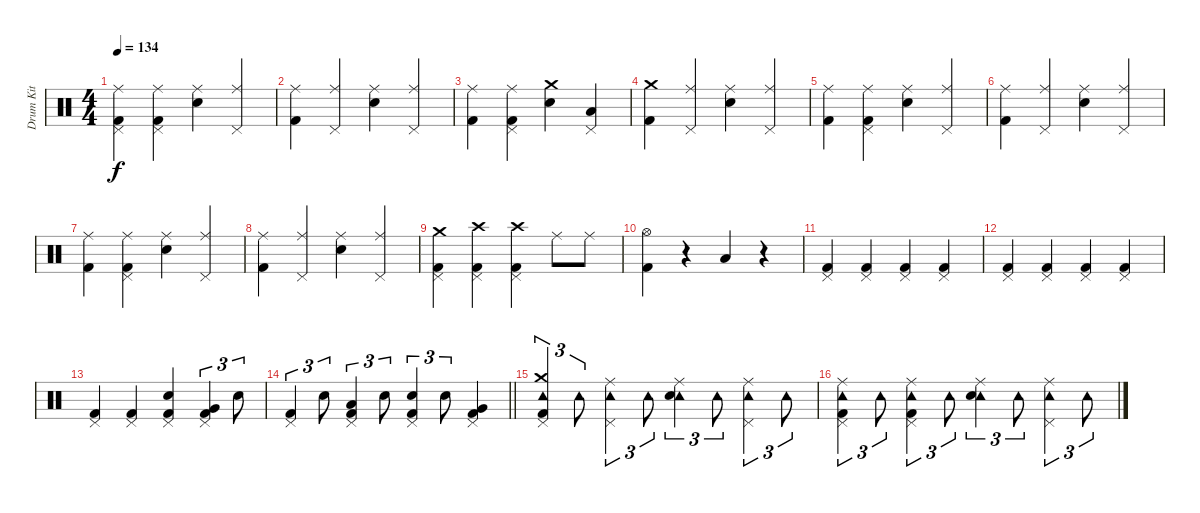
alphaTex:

\track ("Drum Kit" "Drum Kit") {instrument percussion}
\staff {score}
\articulation defaults
\ts (4 4)
\tempo 134
\clef neutral
\ks c
("Ride (middle)" "Pedal Hi-Hat (hit)" "Kick (hit) 2").4{dy f} ("Ride (middle)" "Pedal Hi-Hat (hit)" "Kick (hit) 2").4 ("Ride (middle)" "Snare (hit) 2").4 ("Ride (middle)" "Pedal Hi-Hat (hit)").4 |
("Ride (middle)" "Kick (hit) 2").4 ("Ride (middle)" "Pedal Hi-Hat (hit)").4 ("Ride (middle)" "Snare (hit) 2").4 ("Ride (middle)" "Pedal Hi-Hat (hit)").4 |
("Ride (middle)" "Kick (hit) 2").4 ("Ride (middle)" "Pedal Hi-Hat (hit)" "Kick (hit) 2").4 ("Crash medium (hit)" "Snare (hit) 2").4 ("Pedal Hi-Hat (hit)" "Low Tom (hit)").4 |
("Crash medium (hit)" "Kick (hit) 2").4 ("Ride (middle)" "Pedal Hi-Hat (hit)").4 ("Ride (middle)" "Snare (hit) 2").4 ("Ride (middle)" "Pedal Hi-Hat (hit)").4 |
("Ride (middle)" "Kick (hit) 2").4 ("Ride (middle)" "Pedal Hi-Hat (hit)" "Kick (hit) 2").4 ("Ride (middle)" "Snare (hit) 2").4 ("Ride (middle)" "Pedal Hi-Hat (hit)").4 |
("Ride (middle)" "Kick (hit) 2").4 ("Ride (middle)" "Pedal Hi-Hat (hit)").4 ("Ride (middle)" "Snare (hit) 2").4 ("Ride (middle)" "Pedal Hi-Hat (hit)").4 |
("Ride (middle)" "Kick (hit) 2").4 ("Ride (middle)" "Pedal Hi-Hat (hit)" "Kick (hit) 2").4 ("Ride (middle)" "Snare (hit) 2").4 ("Ride (middle)" "Pedal Hi-Hat (hit)").4 |
("Ride (middle)" "Kick (hit) 2").4 ("Ride (middle)" "Pedal Hi-Hat (hit)").4 ("Ride (middle)" "Snare (hit) 2").4 ("Ride (middle)" "Pedal Hi-Hat (hit)").4 |
("Crash medium (hit)" "Pedal Hi-Hat (hit)" "Kick (hit) 2").4 ("Crash high (hit)" "Pedal Hi-Hat (hit)" "Kick (hit) 2").4 ("Crash high (hit)" "Pedal Hi-Hat (hit)" "Kick (hit) 2").4 "Ride (middle)".8 "Ride (middle)".8 |
("Hi-Hat (open)" "Kick (hit) 2").4 r.4 "Low Tom (hit)".4 r.4 |
("Pedal Hi-Hat (hit)" "Kick (hit) 2").4{volume 4} ("Pedal Hi-Hat (hit)" "Kick (hit) 2").4 ("Pedal Hi-Hat (hit)" "Kick (hit) 2").4{volume 11} ("Pedal Hi-Hat (hit)" "Kick (hit) 2").4 |
("Pedal Hi-Hat (hit)" "Kick (hit) 2").4 ("Pedal Hi-Hat (hit)" "Kick (hit) 2").4 ("Pedal Hi-Hat (hit)" "Kick (hit) 2").4 ("Pedal Hi-Hat (hit)" "Kick (hit) 2").4 |
("Pedal Hi-Hat (hit)" "Kick (hit) 2").4 ("Pedal Hi-Hat (hit)" "Kick (hit) 2").4 ("Pedal Hi-Hat (hit)" "Snare (hit) 2" "Kick (hit) 2").4 ("Pedal Hi-Hat (hit)" "Very Low Tom (hit)" "Kick (hit) 2").4{tu (3 2)} "Snare (hit) 2".8{tu (3 2)} |
\barLineRight lightlight
("Pedal Hi-Hat (hit)" "Kick (hit) 2").4{tu (3 2)} "Snare (hit) 2".8{tu (3 2)} ("Pedal Hi-Hat (hit)" "Low Tom (hit)" "Kick (hit) 2").4{tu (3 2)} "Snare (hit) 2".8{tu (3 2)} ("Pedal Hi-Hat (hit)" "Snare (hit) 2" "Kick (hit) 2").4{tu (3 2)} "Snare (hit) 2".8{tu (3 2)} ("Pedal Hi-Hat (hit)" "Very Low Tom (hit)" "Kick (hit) 2").4 |
("Tambourine (hit)" "Crash medium (hit)" "Pedal Hi-Hat (hit)" "Kick (hit) 2").4{tu (3 2)} "Tambourine (hit)".8{tu (3 2)} ("Tambourine (hit)" "Ride (middle)" "Pedal Hi-Hat (hit)").4{tu (3 2)} "Tambourine (hit)".8{tu (3 2)} ("Tambourine (hit)" "Ride (middle)" "Snare (hit) 2").4{tu (3 2)} "Tambourine (hit)".8{tu (3 2)} ("Tambourine (hit)" "Ride (middle)" "Pedal Hi-Hat (hit)").4{tu (3 2)} "Tambourine (hit)".8{tu (3 2)} |
("Tambourine (hit)" "Ride (middle)" "Pedal Hi-Hat (hit)" "Kick (hit) 2").4{tu (3 2)} "Tambourine (hit)".8{tu (3 2)} ("Tambourine (hit)" "Ride (middle)" "Pedal Hi-Hat (hit)" "Kick (hit) 2").4{tu (3 2)} "Tambourine (hit)".8{tu (3 2)} ("Tambourine (hit)" "Ride (middle)" "Snare (hit) 2").4{tu (3 2)} "Tambourine (hit)".8{tu (3 2)} ("Tambourine (hit)" "Ride (middle)" "Pedal Hi-Hat (hit)").4{tu (3 2)} "Tambourine (hit)".8{tu (3 2)}
